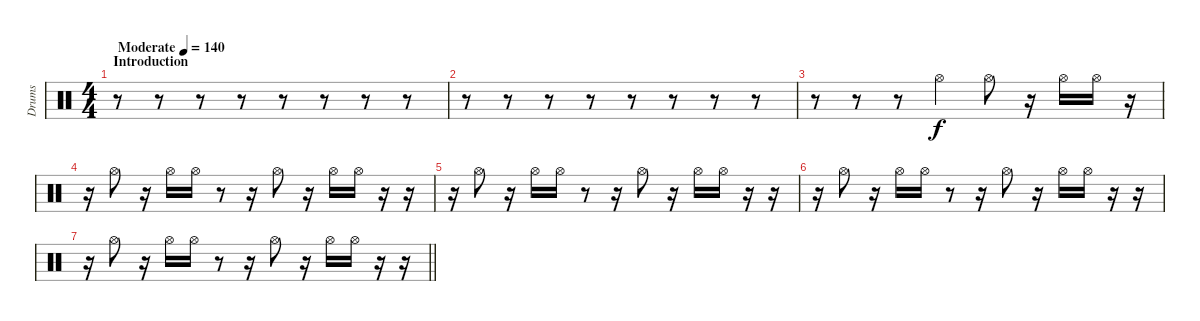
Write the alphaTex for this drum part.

\track ("Drums" "Drums") {instrument percussion}
\staff {score}
\articulation defaults
\ts (4 4)
\section ("" "Introduction")
\tempo (140 "Moderate")
\clef neutral
\ks c
r.8{dy f} r.8 r.8 r.8 r.8 r.8 r.8 r.8 |
r.8 r.8 r.8 r.8 r.8 r.8 r.8 r.8 |
r.8 r.8 r.8 "Hi-Hat (open)".4 "Hi-Hat (open)".8 r.16 "Hi-Hat (open)".16 "Hi-Hat (open)".16 r.16 |
r.16 "Hi-Hat (open)".8 r.16 "Hi-Hat (open)".16 "Hi-Hat (open)".16 r.8 r.16 "Hi-Hat (open)".8 r.16 "Hi-Hat (open)".16 "Hi-Hat (open)".16 r.16 r.16 |
r.16 "Hi-Hat (open)".8 r.16 "Hi-Hat (open)".16 "Hi-Hat (open)".16 r.8 r.16 "Hi-Hat (open)".8 r.16 "Hi-Hat (open)".16 "Hi-Hat (open)".16 r.16 r.16 |
r.16 "Hi-Hat (open)".8 r.16 "Hi-Hat (open)".16 "Hi-Hat (open)".16 r.8 r.16 "Hi-Hat (open)".8 r.16 "Hi-Hat (open)".16 "Hi-Hat (open)".16 r.16 r.16 |
\barLineRight lightlight
r.16 "Hi-Hat (open)".8 r.16 "Hi-Hat (open)".16 "Hi-Hat (open)".16 r.8 r.16 "Hi-Hat (open)".8 r.16 "Hi-Hat (open)".16 "Hi-Hat (open)".16 r.16 r.16
